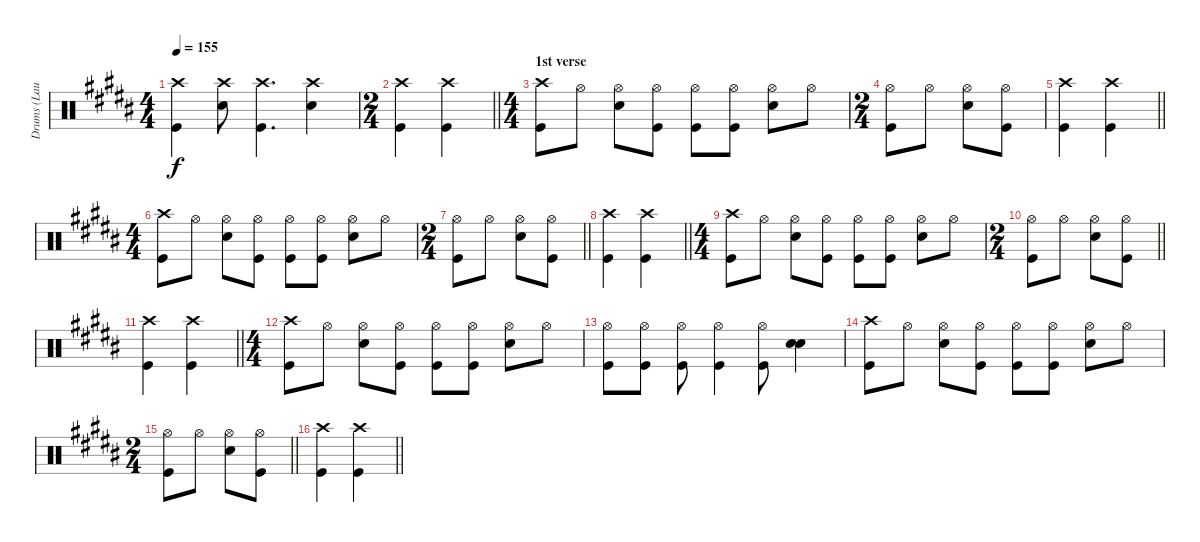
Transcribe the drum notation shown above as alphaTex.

\track ("Drums (Laust Sonne)" "Drums (Lau") {instrument percussion}
\staff {score}
\articulation defaults
\ts (4 4)
\tempo 155
\clef neutral
\ks b
("Crash high (hit)" "Kick (hit)").4{dy f} ("Crash high (hit)" "Snare (hit) 2").8 ("Crash high (hit)" "Kick (hit)").4{d} ("Crash high (hit)" "Snare (hit) 2").4 |
\ts (2 4)
\barLineRight lightlight
("Crash high (hit)" "Kick (hit)").4 ("Crash high (hit)" "Kick (hit)").4 |
\ts (4 4)
\section ("" "1st verse")
("Kick (hit)" "Crash high (hit)").8 "Hi-Hat (open)".8 ("Hi-Hat (open)" "Snare (hit) 2").8 ("Hi-Hat (open)" "Kick (hit)").8 ("Hi-Hat (open)" "Kick (hit)").8 ("Hi-Hat (open)" "Kick (hit)").8 ("Hi-Hat (open)" "Snare (hit) 2").8 "Hi-Hat (open)".8 |
\ts (2 4)
("Kick (hit)" "Hi-Hat (open)").8 "Hi-Hat (open)".8 ("Hi-Hat (open)" "Snare (hit) 2").8 ("Hi-Hat (open)" "Kick (hit)").8 |
\barLineRight lightlight
("Crash high (hit)" "Kick (hit)").4 ("Crash high (hit)" "Kick (hit)").4 |
\ts (4 4)
("Kick (hit)" "Crash high (hit)").8 "Hi-Hat (open)".8 ("Hi-Hat (open)" "Snare (hit) 2").8 ("Hi-Hat (open)" "Kick (hit)").8 ("Hi-Hat (open)" "Kick (hit)").8 ("Hi-Hat (open)" "Kick (hit)").8 ("Hi-Hat (open)" "Snare (hit) 2").8 "Hi-Hat (open)".8 |
\ts (2 4)
\barLineRight lightlight
("Kick (hit)" "Hi-Hat (open)").8 "Hi-Hat (open)".8 ("Hi-Hat (open)" "Snare (hit) 2").8 ("Hi-Hat (open)" "Kick (hit)").8 |
\barLineRight lightlight
("Crash high (hit)" "Kick (hit)").4 ("Crash high (hit)" "Kick (hit)").4 |
\ts (4 4)
("Kick (hit)" "Crash high (hit)").8 "Hi-Hat (open)".8 ("Hi-Hat (open)" "Snare (hit) 2").8 ("Hi-Hat (open)" "Kick (hit)").8 ("Hi-Hat (open)" "Kick (hit)").8 ("Hi-Hat (open)" "Kick (hit)").8 ("Hi-Hat (open)" "Snare (hit) 2").8 "Hi-Hat (open)".8 |
\ts (2 4)
\barLineRight lightlight
("Kick (hit)" "Hi-Hat (open)").8 "Hi-Hat (open)".8 ("Hi-Hat (open)" "Snare (hit) 2").8 ("Hi-Hat (open)" "Kick (hit)").8 |
\barLineRight lightlight
("Crash high (hit)" "Kick (hit)").4 ("Crash high (hit)" "Kick (hit)").4 |
\ts (4 4)
("Kick (hit)" "Crash high (hit)").8 "Hi-Hat (open)".8 ("Hi-Hat (open)" "Snare (hit) 2").8 ("Hi-Hat (open)" "Kick (hit)").8 ("Hi-Hat (open)" "Kick (hit)").8 ("Hi-Hat (open)" "Kick (hit)").8 ("Hi-Hat (open)" "Snare (hit) 2").8 "Hi-Hat (open)".8 |
("Hi-Hat (open)" "Kick (hit)").8 ("Hi-Hat (open)" "Kick (hit)").8 ("Hi-Hat (open)" "Kick (hit)").8 ("Hi-Hat (open)" "Kick (hit)").4 ("Hi-Hat (open)" "Kick (hit)").8 ("Snare (hit) 2" "Snare (hit) 2").4 |
("Kick (hit)" "Crash high (hit)").8 "Hi-Hat (open)".8 ("Hi-Hat (open)" "Snare (hit) 2").8 ("Hi-Hat (open)" "Kick (hit)").8 ("Hi-Hat (open)" "Kick (hit)").8 ("Hi-Hat (open)" "Kick (hit)").8 ("Hi-Hat (open)" "Snare (hit) 2").8 "Hi-Hat (open)".8 |
\ts (2 4)
\barLineRight lightlight
("Kick (hit)" "Hi-Hat (open)").8 "Hi-Hat (open)".8 ("Hi-Hat (open)" "Snare (hit) 2").8 ("Hi-Hat (open)" "Kick (hit)").8 |
\barLineRight lightlight
("Crash high (hit)" "Kick (hit)").4 ("Crash high (hit)" "Kick (hit)").4
